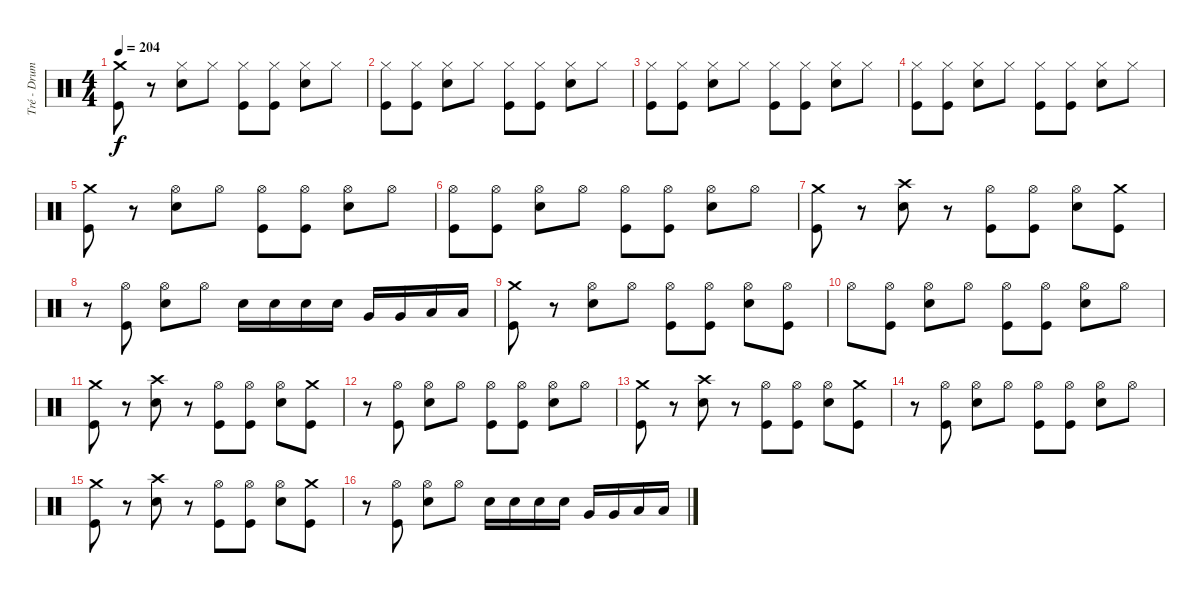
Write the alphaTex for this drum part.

\track ("Tré - Drums" "Tré - Drum") {instrument percussion}
\staff {score}
\articulation defaults
\ts (4 4)
\tempo 204
\clef neutral
\ks c
("Crash medium (hit)" "Kick (hit)").8{dy f} r.8 ("Hi-Hat (closed)" "Electric Snare (hit)").8 "Hi-Hat (closed)".8 ("Hi-Hat (closed)" "Kick (hit)").8 ("Hi-Hat (closed)" "Kick (hit)").8 ("Hi-Hat (closed)" "Electric Snare (hit)").8 "Hi-Hat (closed)".8 |
("Hi-Hat (closed)" "Kick (hit)").8 ("Hi-Hat (closed)" "Kick (hit)").8 ("Hi-Hat (closed)" "Electric Snare (hit)").8 "Hi-Hat (closed)".8 ("Hi-Hat (closed)" "Kick (hit)").8 ("Hi-Hat (closed)" "Kick (hit)").8 ("Hi-Hat (closed)" "Electric Snare (hit)").8 "Hi-Hat (closed)".8 |
("Hi-Hat (closed)" "Kick (hit)").8 ("Hi-Hat (closed)" "Kick (hit)").8 ("Hi-Hat (closed)" "Electric Snare (hit)").8 "Hi-Hat (closed)".8 ("Hi-Hat (closed)" "Kick (hit)").8 ("Hi-Hat (closed)" "Kick (hit)").8 ("Hi-Hat (closed)" "Electric Snare (hit)").8 "Hi-Hat (closed)".8 |
("Hi-Hat (closed)" "Kick (hit)").8 ("Hi-Hat (closed)" "Kick (hit)").8 ("Hi-Hat (closed)" "Electric Snare (hit)").8 "Hi-Hat (closed)".8 ("Hi-Hat (closed)" "Kick (hit)").8 ("Hi-Hat (closed)" "Kick (hit)").8 ("Hi-Hat (closed)" "Electric Snare (hit)").8 "Hi-Hat (closed)".8 |
("Crash medium (hit)" "Kick (hit)").8 r.8 ("Hi-Hat (open)" "Electric Snare (hit)").8 "Hi-Hat (open)".8 ("Hi-Hat (open)" "Kick (hit)").8 ("Hi-Hat (open)" "Kick (hit)").8 ("Hi-Hat (open)" "Electric Snare (hit)").8 "Hi-Hat (open)".8 |
("Hi-Hat (open)" "Kick (hit)").8 ("Hi-Hat (open)" "Kick (hit)").8 ("Hi-Hat (open)" "Electric Snare (hit)").8 "Hi-Hat (open)".8 ("Hi-Hat (open)" "Kick (hit)").8 ("Hi-Hat (open)" "Kick (hit)").8 ("Hi-Hat (open)" "Electric Snare (hit)").8 "Hi-Hat (open)".8 |
("Crash medium (hit)" "Kick (hit)").8 r.8 ("Crash high (hit)" "Electric Snare (hit)").8 r.8 ("Hi-Hat (open)" "Kick (hit)").8 ("Hi-Hat (open)" "Kick (hit)").8 ("Hi-Hat (open)" "Electric Snare (hit)").8 ("Crash medium (hit)" "Kick (hit)").8 |
r.8 ("Hi-Hat (open)" "Kick (hit)").8 ("Hi-Hat (open)" "Electric Snare (hit)").8 "Hi-Hat (open)".8 "Electric Snare (hit)".16 "Electric Snare (hit)".16 "Electric Snare (hit)".16 "Electric Snare (hit)".16 "Very Low Tom (hit)".16 "Very Low Tom (hit)".16 "Low Floor Tom (hit)".16 "Low Floor Tom (hit)".16 |
("Crash medium (hit)" "Kick (hit)").8 r.8 ("Hi-Hat (open)" "Electric Snare (hit)").8 "Hi-Hat (open)".8 ("Hi-Hat (open)" "Kick (hit)").8 ("Hi-Hat (open)" "Kick (hit)").8 ("Hi-Hat (open)" "Electric Snare (hit)").8 ("Hi-Hat (open)" "Kick (hit)").8 |
"Hi-Hat (open)".8 ("Hi-Hat (open)" "Kick (hit)").8 ("Hi-Hat (open)" "Electric Snare (hit)").8 "Hi-Hat (open)".8 ("Hi-Hat (open)" "Kick (hit)").8 ("Hi-Hat (open)" "Kick (hit)").8 ("Hi-Hat (open)" "Electric Snare (hit)").8 "Hi-Hat (open)".8 |
("Crash medium (hit)" "Kick (hit)").8 r.8 ("Crash high (hit)" "Electric Snare (hit)").8 r.8 ("Hi-Hat (open)" "Kick (hit)").8 ("Hi-Hat (open)" "Kick (hit)").8 ("Hi-Hat (open)" "Electric Snare (hit)").8 ("Crash medium (hit)" "Kick (hit)").8 |
r.8 ("Hi-Hat (open)" "Kick (hit)").8 ("Hi-Hat (open)" "Electric Snare (hit)").8 "Hi-Hat (open)".8 ("Hi-Hat (open)" "Kick (hit)").8 ("Hi-Hat (open)" "Kick (hit)").8 ("Hi-Hat (open)" "Electric Snare (hit)").8 "Hi-Hat (open)".8 |
("Crash medium (hit)" "Kick (hit)").8 r.8 ("Crash high (hit)" "Electric Snare (hit)").8 r.8 ("Hi-Hat (open)" "Kick (hit)").8 ("Hi-Hat (open)" "Kick (hit)").8 ("Hi-Hat (open)" "Electric Snare (hit)").8 ("Crash medium (hit)" "Kick (hit)").8 |
r.8 ("Hi-Hat (open)" "Kick (hit)").8 ("Hi-Hat (open)" "Electric Snare (hit)").8 "Hi-Hat (open)".8 ("Hi-Hat (open)" "Kick (hit)").8 ("Hi-Hat (open)" "Kick (hit)").8 ("Hi-Hat (open)" "Electric Snare (hit)").8 "Hi-Hat (open)".8 |
("Crash medium (hit)" "Kick (hit)").8 r.8 ("Crash high (hit)" "Electric Snare (hit)").8 r.8 ("Hi-Hat (open)" "Kick (hit)").8 ("Hi-Hat (open)" "Kick (hit)").8 ("Hi-Hat (open)" "Electric Snare (hit)").8 ("Crash medium (hit)" "Kick (hit)").8 |
r.8 ("Hi-Hat (open)" "Kick (hit)").8 ("Hi-Hat (open)" "Electric Snare (hit)").8 "Hi-Hat (open)".8 "Electric Snare (hit)".16 "Electric Snare (hit)".16 "Electric Snare (hit)".16 "Electric Snare (hit)".16 "Very Low Tom (hit)".16 "Very Low Tom (hit)".16 "Low Floor Tom (hit)".16 "Low Floor Tom (hit)".16
